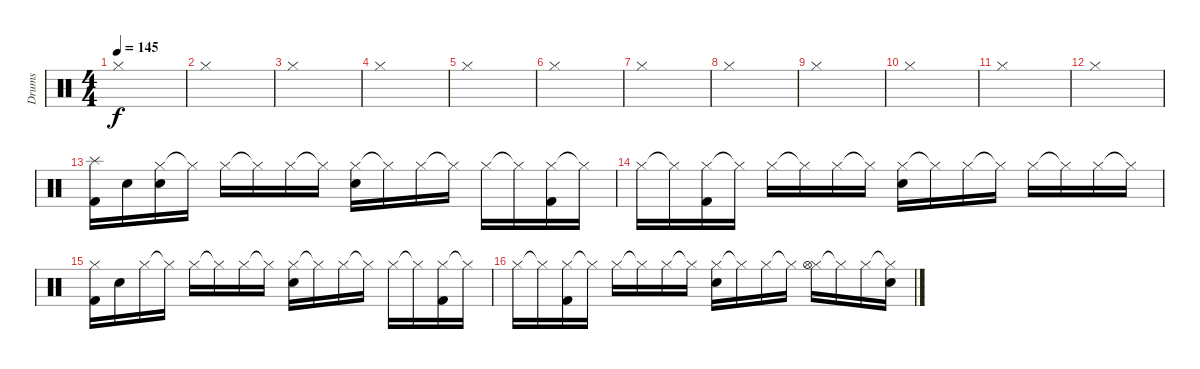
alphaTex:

\track ("Drums" "Drums") {instrument percussion}
\staff {score}
\articulation defaults
\ts (4 4)
\tempo 145
\clef neutral
\ks c "Hi-Hat (closed)".1{dy f}
|
"Hi-Hat (closed)".1 |
"Hi-Hat (closed)".1 |
"Hi-Hat (closed)".1 |
"Hi-Hat (closed)".1 |
"Hi-Hat (closed)".1 |
"Hi-Hat (closed)".1 |
"Hi-Hat (closed)".1 |
"Hi-Hat (closed)".1 |
"Hi-Hat (closed)".1 |
"Hi-Hat (closed)".1 |
"Hi-Hat (closed)".1 |
("Splash (hit)" "Kick (hit) 2").16 "Snare (hit)".16 ("Hi-Hat (closed)" "Snare (hit)").16 "Hi-Hat (closed)"{t}.16 "Hi-Hat (closed)".16 "Hi-Hat (closed)"{t}.16 "Hi-Hat (closed)".16 "Hi-Hat (closed)"{t}.16 ("Hi-Hat (closed)" "Snare (hit) 2").16 "Hi-Hat (closed)"{t}.16 "Hi-Hat (closed)".16 "Hi-Hat (closed)"{t}.16 "Hi-Hat (closed)".16 "Hi-Hat (closed)"{t}.16 ("Hi-Hat (closed)" "Kick (hit) 2").16 "Hi-Hat (closed)"{t}.16 |
"Hi-Hat (closed)".16 "Hi-Hat (closed)"{t}.16 ("Hi-Hat (closed)" "Kick (hit) 2").16 "Hi-Hat (closed)"{t}.16 "Hi-Hat (closed)".16 "Hi-Hat (closed)"{t}.16 "Hi-Hat (closed)".16 "Hi-Hat (closed)"{t}.16 ("Hi-Hat (closed)" "Snare (hit) 2").16 "Hi-Hat (closed)"{t}.16 "Hi-Hat (closed)".16 "Hi-Hat (closed)"{t}.16 "Hi-Hat (closed)".16 "Hi-Hat (closed)"{t}.16 "Hi-Hat (closed)".16 "Hi-Hat (closed)"{t}.16 |
("Hi-Hat (closed)" "Kick (hit) 2").16 "Snare (hit)".16 "Hi-Hat (closed)".16 "Hi-Hat (closed)"{t}.16 "Hi-Hat (closed)".16 "Hi-Hat (closed)"{t}.16 "Hi-Hat (closed)".16 "Hi-Hat (closed)"{t}.16 ("Hi-Hat (closed)" "Snare (hit) 2").16 "Hi-Hat (closed)"{t}.16 "Hi-Hat (closed)".16 "Hi-Hat (closed)"{t}.16 "Hi-Hat (closed)".16 "Hi-Hat (closed)"{t}.16 ("Hi-Hat (closed)" "Kick (hit) 2").16 "Hi-Hat (closed)"{t}.16 |
"Hi-Hat (closed)".16 "Hi-Hat (closed)"{t}.16 ("Hi-Hat (closed)" "Kick (hit) 2").16 "Hi-Hat (closed)"{t}.16 "Hi-Hat (closed)".16 "Hi-Hat (closed)"{t}.16 "Hi-Hat (closed)".16 "Hi-Hat (closed)"{t}.16 ("Hi-Hat (closed)" "Snare (hit) 2").16 "Hi-Hat (closed)"{t}.16 "Hi-Hat (closed)".16 "Hi-Hat (closed)"{t}.16 ("Hi-Hat (closed)" "Hi-Hat (open)").16 "Hi-Hat (closed)"{t}.16 "Hi-Hat (closed)".16 ("Hi-Hat (closed)"{t} "Snare (hit)").16
